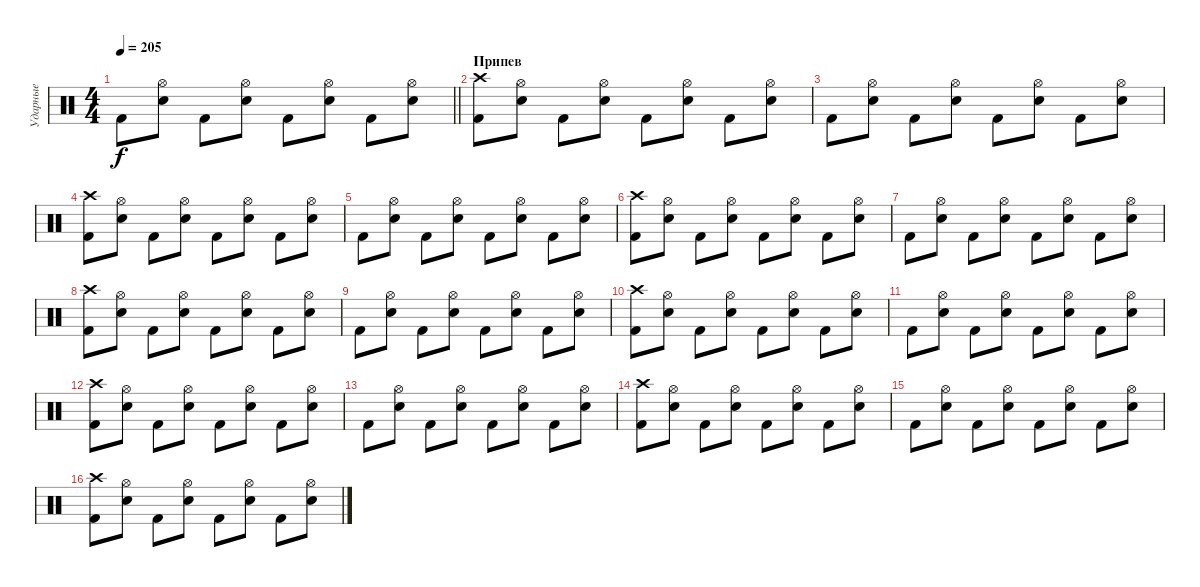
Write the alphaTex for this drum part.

\track ("Ударные" "Ударные") {instrument percussion}
\staff {score}
\articulation defaults
\ts (4 4)
\tempo 205
\clef neutral
\barLineRight lightlight
\ks c "Kick (hit) 2".8{dy f}
("Hi-Hat (open)" "Electric Snare (hit)").8 "Kick (hit) 2".8 ("Hi-Hat (open)" "Electric Snare (hit)").8 "Kick (hit) 2".8 ("Hi-Hat (open)" "Electric Snare (hit)").8 "Kick (hit) 2".8 ("Hi-Hat (open)" "Electric Snare (hit)").8 |
\section ("" "Припев")
("Crash high (hit)" "Kick (hit) 2").8 ("Hi-Hat (open)" "Electric Snare (hit)").8 "Kick (hit) 2".8 ("Hi-Hat (open)" "Electric Snare (hit)").8 "Kick (hit) 2".8 ("Hi-Hat (open)" "Electric Snare (hit)").8 "Kick (hit) 2".8 ("Hi-Hat (open)" "Electric Snare (hit)").8 |
"Kick (hit) 2".8 ("Hi-Hat (open)" "Electric Snare (hit)").8 "Kick (hit) 2".8 ("Hi-Hat (open)" "Electric Snare (hit)").8 "Kick (hit) 2".8 ("Hi-Hat (open)" "Electric Snare (hit)").8 "Kick (hit) 2".8 ("Hi-Hat (open)" "Electric Snare (hit)").8 |
("Crash high (hit)" "Kick (hit) 2").8 ("Hi-Hat (open)" "Electric Snare (hit)").8 "Kick (hit) 2".8 ("Hi-Hat (open)" "Electric Snare (hit)").8 "Kick (hit) 2".8 ("Hi-Hat (open)" "Electric Snare (hit)").8 "Kick (hit) 2".8 ("Hi-Hat (open)" "Electric Snare (hit)").8 |
"Kick (hit) 2".8 ("Hi-Hat (open)" "Electric Snare (hit)").8 "Kick (hit) 2".8 ("Hi-Hat (open)" "Electric Snare (hit)").8 "Kick (hit) 2".8 ("Hi-Hat (open)" "Electric Snare (hit)").8 "Kick (hit) 2".8 ("Hi-Hat (open)" "Electric Snare (hit)").8 |
("Crash high (hit)" "Kick (hit) 2").8 ("Hi-Hat (open)" "Electric Snare (hit)").8 "Kick (hit) 2".8 ("Hi-Hat (open)" "Electric Snare (hit)").8 "Kick (hit) 2".8 ("Hi-Hat (open)" "Electric Snare (hit)").8 "Kick (hit) 2".8 ("Hi-Hat (open)" "Electric Snare (hit)").8 |
"Kick (hit) 2".8 ("Hi-Hat (open)" "Electric Snare (hit)").8 "Kick (hit) 2".8 ("Hi-Hat (open)" "Electric Snare (hit)").8 "Kick (hit) 2".8 ("Hi-Hat (open)" "Electric Snare (hit)").8 "Kick (hit) 2".8 ("Hi-Hat (open)" "Electric Snare (hit)").8 |
("Crash high (hit)" "Kick (hit) 2").8 ("Hi-Hat (open)" "Electric Snare (hit)").8 "Kick (hit) 2".8 ("Hi-Hat (open)" "Electric Snare (hit)").8 "Kick (hit) 2".8 ("Hi-Hat (open)" "Electric Snare (hit)").8 "Kick (hit) 2".8 ("Hi-Hat (open)" "Electric Snare (hit)").8 |
"Kick (hit) 2".8 ("Hi-Hat (open)" "Electric Snare (hit)").8 "Kick (hit) 2".8 ("Hi-Hat (open)" "Electric Snare (hit)").8 "Kick (hit) 2".8 ("Hi-Hat (open)" "Electric Snare (hit)").8 "Kick (hit) 2".8 ("Hi-Hat (open)" "Electric Snare (hit)").8 |
("Crash high (hit)" "Kick (hit) 2").8 ("Hi-Hat (open)" "Electric Snare (hit)").8 "Kick (hit) 2".8 ("Hi-Hat (open)" "Electric Snare (hit)").8 "Kick (hit) 2".8 ("Hi-Hat (open)" "Electric Snare (hit)").8 "Kick (hit) 2".8 ("Hi-Hat (open)" "Electric Snare (hit)").8 |
"Kick (hit) 2".8 ("Hi-Hat (open)" "Electric Snare (hit)").8 "Kick (hit) 2".8 ("Hi-Hat (open)" "Electric Snare (hit)").8 "Kick (hit) 2".8 ("Hi-Hat (open)" "Electric Snare (hit)").8 "Kick (hit) 2".8 ("Hi-Hat (open)" "Electric Snare (hit)").8 |
("Crash high (hit)" "Kick (hit) 2").8 ("Hi-Hat (open)" "Electric Snare (hit)").8 "Kick (hit) 2".8 ("Hi-Hat (open)" "Electric Snare (hit)").8 "Kick (hit) 2".8 ("Hi-Hat (open)" "Electric Snare (hit)").8 "Kick (hit) 2".8 ("Hi-Hat (open)" "Electric Snare (hit)").8 |
"Kick (hit) 2".8 ("Hi-Hat (open)" "Electric Snare (hit)").8 "Kick (hit) 2".8 ("Hi-Hat (open)" "Electric Snare (hit)").8 "Kick (hit) 2".8 ("Hi-Hat (open)" "Electric Snare (hit)").8 "Kick (hit) 2".8 ("Hi-Hat (open)" "Electric Snare (hit)").8 |
("Crash high (hit)" "Kick (hit) 2").8 ("Hi-Hat (open)" "Electric Snare (hit)").8 "Kick (hit) 2".8 ("Hi-Hat (open)" "Electric Snare (hit)").8 "Kick (hit) 2".8 ("Hi-Hat (open)" "Electric Snare (hit)").8 "Kick (hit) 2".8 ("Hi-Hat (open)" "Electric Snare (hit)").8 |
"Kick (hit) 2".8 ("Hi-Hat (open)" "Electric Snare (hit)").8 "Kick (hit) 2".8 ("Hi-Hat (open)" "Electric Snare (hit)").8 "Kick (hit) 2".8 ("Hi-Hat (open)" "Electric Snare (hit)").8 "Kick (hit) 2".8 ("Hi-Hat (open)" "Electric Snare (hit)").8 |
("Crash high (hit)" "Kick (hit) 2").8 ("Hi-Hat (open)" "Electric Snare (hit)").8 "Kick (hit) 2".8 ("Hi-Hat (open)" "Electric Snare (hit)").8 "Kick (hit) 2".8 ("Hi-Hat (open)" "Electric Snare (hit)").8 "Kick (hit) 2".8 ("Hi-Hat (open)" "Electric Snare (hit)").8
